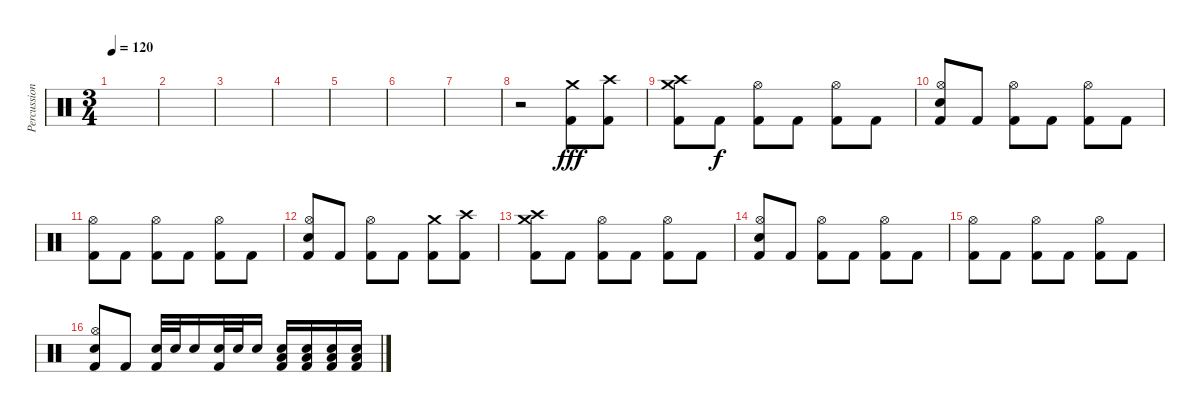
\track ("Percussion" "Percussion") {instrument percussion}
\staff {score}
\articulation defaults
\ts (3 4)
\tempo 120
\clef neutral
\ks c
|
|
|
|
|
|
|
r.2 ("Crash medium (hit)" "Kick (hit) 2").8{dy fff} ("Crash high (hit)" "Kick (hit) 2").8 |
("Crash high (hit)" "Crash medium (hit)" "Kick (hit) 2").8 "Kick (hit) 2".8{dy f} ("Hi-Hat (open)" "Kick (hit) 2").8 "Kick (hit) 2".8 ("Hi-Hat (open)" "Kick (hit) 2").8 "Kick (hit) 2".8 |
("Hi-Hat (open)" "Electric Snare (hit)" "Kick (hit) 2").8 "Kick (hit) 2".8 ("Hi-Hat (open)" "Kick (hit) 2").8 "Kick (hit) 2".8 ("Hi-Hat (open)" "Kick (hit) 2").8 "Kick (hit) 2".8 |
("Hi-Hat (open)" "Kick (hit) 2").8 "Kick (hit) 2".8 ("Hi-Hat (open)" "Kick (hit) 2").8 "Kick (hit) 2".8 ("Hi-Hat (open)" "Kick (hit) 2").8 "Kick (hit) 2".8 |
("Hi-Hat (open)" "Electric Snare (hit)" "Kick (hit) 2").8 "Kick (hit) 2".8 ("Hi-Hat (open)" "Kick (hit) 2").8 "Kick (hit) 2".8 ("Crash medium (hit)" "Kick (hit) 2").8 ("Crash high (hit)" "Kick (hit) 2").8 |
("Crash medium (hit)" "Crash high (hit)" "Kick (hit) 2").8 "Kick (hit) 2".8 ("Hi-Hat (open)" "Kick (hit) 2").8 "Kick (hit) 2".8 ("Hi-Hat (open)" "Kick (hit) 2").8 "Kick (hit) 2".8 |
("Hi-Hat (open)" "Electric Snare (hit)" "Kick (hit) 2").8 "Kick (hit) 2".8 ("Hi-Hat (open)" "Kick (hit) 2").8 "Kick (hit) 2".8 ("Hi-Hat (open)" "Kick (hit) 2").8 "Kick (hit) 2".8 |
("Hi-Hat (open)" "Kick (hit) 2").8 "Kick (hit) 2".8 ("Hi-Hat (open)" "Kick (hit) 2").8 "Kick (hit) 2".8 ("Hi-Hat (open)" "Kick (hit) 2").8 "Kick (hit) 2".8 |
("Hi-Hat (open)" "Electric Snare (hit)" "Kick (hit) 2").8 "Kick (hit) 2".8 ("Electric Snare (hit)" "Kick (hit) 2").32 "Electric Snare (hit)".32 "Electric Snare (hit)".16 ("Electric Snare (hit)" "Kick (hit) 2").32 "Electric Snare (hit)".32 "Electric Snare (hit)".16 ("Low Tom (hit)" "Electric Snare (hit)" "Kick (hit) 2").16 ("Low Tom (hit)" "Electric Snare (hit)" "Kick (hit) 2").16 ("Low Tom (hit)" "Electric Snare (hit)" "Kick (hit) 2").16 ("Low Tom (hit)" "Electric Snare (hit)" "Kick (hit) 2").16
